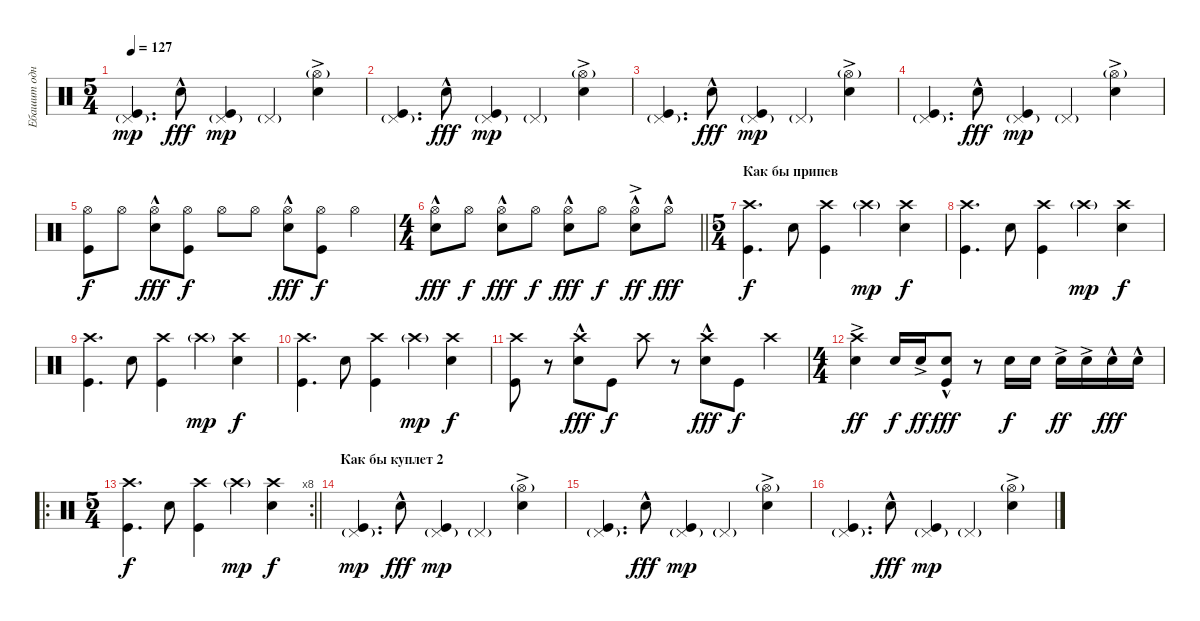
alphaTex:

\track ("Ебашит однако" "Ебашит одн") {instrument percussion}
\staff {score}
\articulation defaults
\ts (5 4)
\tempo 127
\clef neutral
\ks c
("Kick (hit)" "Pedal Hi-Hat (hit)"{g}).4{d dy mp} "Electric Snare (hit)"{hac}.8{dy fff} ("Kick (hit)" "Pedal Hi-Hat (hit)"{g}).4{dy mp} "Pedal Hi-Hat (hit)"{g}.4 ("Electric Snare (hit)"{ac} "Hi-Hat (open)"{g}).4 |
("Kick (hit)" "Pedal Hi-Hat (hit)"{g}).4{d} "Electric Snare (hit)"{hac}.8{dy fff} ("Kick (hit)" "Pedal Hi-Hat (hit)"{g}).4{dy mp} "Pedal Hi-Hat (hit)"{g}.4 ("Electric Snare (hit)"{ac} "Hi-Hat (open)"{g}).4 |
("Kick (hit)" "Pedal Hi-Hat (hit)"{g}).4{d} "Electric Snare (hit)"{hac}.8{dy fff} ("Kick (hit)" "Pedal Hi-Hat (hit)"{g}).4{dy mp} "Pedal Hi-Hat (hit)"{g}.4 ("Electric Snare (hit)"{ac} "Hi-Hat (open)"{g}).4 |
("Kick (hit)" "Pedal Hi-Hat (hit)"{g}).4{d} "Electric Snare (hit)"{hac}.8{dy fff} ("Kick (hit)" "Pedal Hi-Hat (hit)"{g}).4{dy mp} "Pedal Hi-Hat (hit)"{g}.4 ("Electric Snare (hit)"{ac} "Hi-Hat (open)"{g}).4 |
("Kick (hit)" "Hi-Hat (open)").8{dy f} "Hi-Hat (open)".8 ("Electric Snare (hit)"{hac} "Hi-Hat (open)").8{dy fff} ("Kick (hit)" "Hi-Hat (open)").8{dy f} "Hi-Hat (open)".8 "Hi-Hat (open)".8 ("Electric Snare (hit)"{hac} "Hi-Hat (open)").8{dy fff} ("Kick (hit)" "Hi-Hat (open)").8{dy f} "Hi-Hat (open)".4 |
\ts (4 4)
\barLineRight lightlight
("Electric Snare (hit)"{hac} "Hi-Hat (open)").8{dy fff} "Hi-Hat (open)".8{dy f} ("Electric Snare (hit)"{hac} "Hi-Hat (open)").8{dy fff} "Hi-Hat (open)".8{dy f} ("Electric Snare (hit)"{hac} "Hi-Hat (open)").8{dy fff} "Hi-Hat (open)".8{dy f} ("Electric Snare (hit)"{hac} "Hi-Hat (open)"{ac}).8{dy ff} "Hi-Hat (open)"{hac}.8{dy fff} |
\ts (5 4)
\section ("" "Как бы припев")
("Kick (hit)" "Crash high (hit)").4{d dy f} "Electric Snare (hit)".8 ("Kick (hit)" "Crash high (hit)").4 "Crash high (hit)"{g}.4{dy mp} ("Electric Snare (hit)" "Crash high (hit)").4{dy f} |
("Kick (hit)" "Crash high (hit)").4{d} "Electric Snare (hit)".8 ("Kick (hit)" "Crash high (hit)").4 "Crash high (hit)"{g}.4{dy mp} ("Electric Snare (hit)" "Crash high (hit)").4{dy f} |
("Kick (hit)" "Crash high (hit)").4{d} "Electric Snare (hit)".8 ("Kick (hit)" "Crash high (hit)").4 "Crash high (hit)"{g}.4{dy mp} ("Electric Snare (hit)" "Crash high (hit)").4{dy f} |
("Kick (hit)" "Crash high (hit)").4{d} "Electric Snare (hit)".8 ("Kick (hit)" "Crash high (hit)").4 "Crash high (hit)"{g}.4{dy mp} ("Electric Snare (hit)" "Crash high (hit)").4{dy f} |
("Kick (hit)" "Crash high (hit)").8 r.8 ("Electric Snare (hit)"{hac} "Crash high (hit)").8{dy fff} "Kick (hit)".8{dy f} "Crash high (hit)".8 r.8 ("Electric Snare (hit)"{hac} "Crash high (hit)").8{dy fff} "Kick (hit)".8{dy f} "Crash high (hit)".4 |
\ts (4 4)
("Electric Snare (hit)"{ac} "Crash high (hit)").4{dy ff} "Electric Snare (hit)".16{dy f} "Electric Snare (hit)"{ac}.16{dy ff} ("Electric Snare (hit)"{hac} "Kick (hit)").8{dy fff} r.8 "Electric Snare (hit)".16{dy f} "Electric Snare (hit)".16 "Electric Snare (hit)"{ac}.16{dy ff} "Electric Snare (hit)"{ac}.16 "Electric Snare (hit)"{hac}.16{dy fff} "Electric Snare (hit)"{hac}.16 |
\ro
\rc 8
\ts (5 4)
\barLineRight lightlight
("Kick (hit)" "Crash high (hit)").4{d dy f} "Electric Snare (hit)".8 ("Kick (hit)" "Crash high (hit)").4 "Crash high (hit)"{g}.4{dy mp} ("Electric Snare (hit)" "Crash high (hit)").4{dy f} |
\section ("" "Как бы куплет 2")
("Kick (hit)" "Pedal Hi-Hat (hit)"{g}).4{d dy mp} "Electric Snare (hit)"{hac}.8{dy fff} ("Kick (hit)" "Pedal Hi-Hat (hit)"{g}).4{dy mp} "Pedal Hi-Hat (hit)"{g}.4 ("Electric Snare (hit)"{ac} "Hi-Hat (open)"{g}).4 |
("Kick (hit)" "Pedal Hi-Hat (hit)"{g}).4{d} "Electric Snare (hit)"{hac}.8{dy fff} ("Kick (hit)" "Pedal Hi-Hat (hit)"{g}).4{dy mp} "Pedal Hi-Hat (hit)"{g}.4 ("Electric Snare (hit)"{ac} "Hi-Hat (open)"{g}).4 |
("Kick (hit)" "Pedal Hi-Hat (hit)"{g}).4{d} "Electric Snare (hit)"{hac}.8{dy fff} ("Kick (hit)" "Pedal Hi-Hat (hit)"{g}).4{dy mp} "Pedal Hi-Hat (hit)"{g}.4 ("Electric Snare (hit)"{ac} "Hi-Hat (open)"{g}).4
